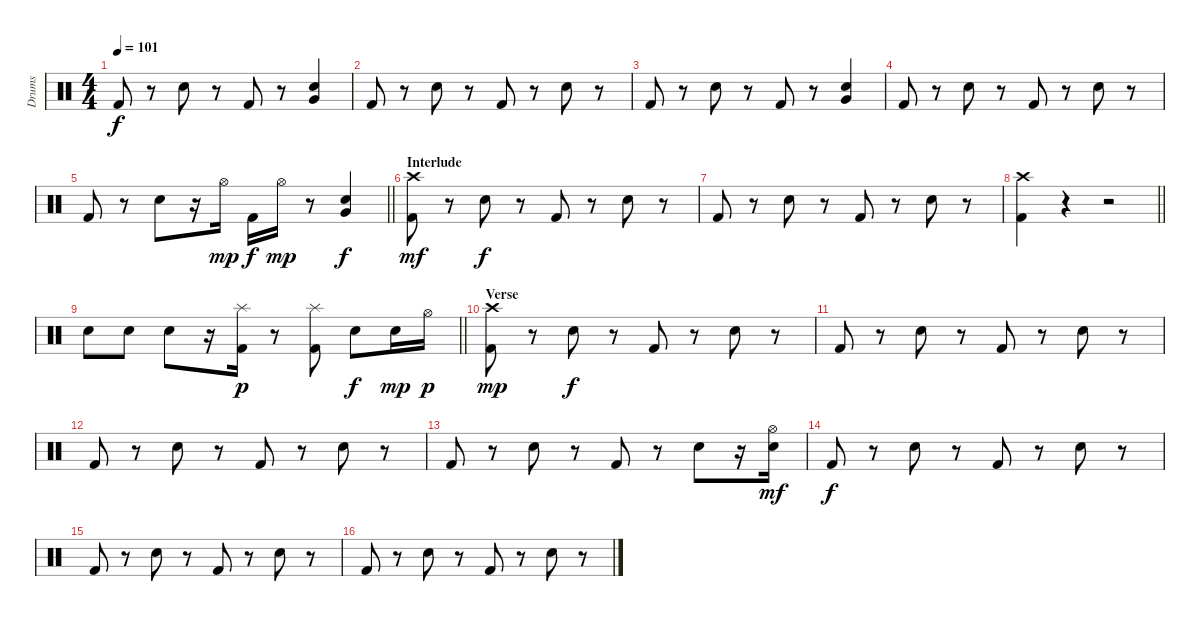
\track ("Drums" "Drums") {instrument percussion}
\staff {score}
\articulation defaults
\ts (4 4)
\tempo 101
\clef neutral
\ks c "Kick (hit) 2".8{dy f}
r.8 "Electric Snare (hit)".8 r.8 "Kick (hit) 2".8 r.8 ("Electric Snare (hit)" "Very Low Tom (hit)").4 |
"Kick (hit) 2".8 r.8 "Electric Snare (hit)".8 r.8 "Kick (hit) 2".8 r.8 "Electric Snare (hit)".8 r.8 |
"Kick (hit) 2".8 r.8 "Electric Snare (hit)".8 r.8 "Kick (hit) 2".8 r.8 ("Electric Snare (hit)" "Very Low Tom (hit)").4 |
"Kick (hit) 2".8 r.8 "Electric Snare (hit)".8 r.8 "Kick (hit) 2".8 r.8 "Electric Snare (hit)".8 r.8 |
\barLineRight lightlight "Kick (hit) 2".8
r.8 "Electric Snare (hit)".8 r.16 "Hi-Hat (open)".16{dy mp} "Kick (hit) 2".16{dy f} "Hi-Hat (open)".16{dy mp} r.8 ("Electric Snare (hit)" "Very Low Tom (hit)").4{dy f} |
\section ("" "Interlude")
("Crash high (hit)" "Kick (hit) 2").8{dy mf} r.8 "Electric Snare (hit)".8{dy f} r.8 "Kick (hit) 2".8 r.8 "Electric Snare (hit)".8 r.8 |
"Kick (hit) 2".8 r.8 "Electric Snare (hit)".8 r.8 "Kick (hit) 2".8 r.8 "Electric Snare (hit)".8 r.8 |
\barLineRight lightlight
("Crash high (hit)" "Kick (hit) 2").4 r.4 r.2 |
\barLineRight lightlight "Electric Snare (hit)".8 "Electric Snare (hit)".8 "Electric Snare (hit)".8
r.16 ("Splash (hit)" "Kick (hit) 2").16{dy p} r.8 ("Splash (hit)" "Kick (hit) 2").8 "Electric Snare (hit)".8{dy f} "Electric Snare (hit)".16{dy mp} "Hi-Hat (open)".16{dy p} |
\section ("" "Verse")
("Crash high (hit)" "Kick (hit) 2").8{dy mp} r.8 "Electric Snare (hit)".8{dy f} r.8 "Kick (hit) 2".8 r.8 "Electric Snare (hit)".8 r.8 |
"Kick (hit) 2".8 r.8 "Electric Snare (hit)".8 r.8 "Kick (hit) 2".8 r.8 "Electric Snare (hit)".8 r.8 |
"Kick (hit) 2".8 r.8 "Electric Snare (hit)".8 r.8 "Kick (hit) 2".8 r.8 "Electric Snare (hit)".8 r.8 |
"Kick (hit) 2".8 r.8 "Electric Snare (hit)".8 r.8 "Kick (hit) 2".8 r.8 "Electric Snare (hit)".8 r.16 ("Hi-Hat (open)" "Electric Snare (hit)").16{dy mf} |
"Kick (hit) 2".8{dy f} r.8 "Electric Snare (hit)".8 r.8 "Kick (hit) 2".8 r.8 "Electric Snare (hit)".8 r.8 |
"Kick (hit) 2".8 r.8 "Electric Snare (hit)".8 r.8 "Kick (hit) 2".8 r.8 "Electric Snare (hit)".8 r.8 |
"Kick (hit) 2".8 r.8 "Electric Snare (hit)".8 r.8 "Kick (hit) 2".8 r.8 "Electric Snare (hit)".8 r.8
